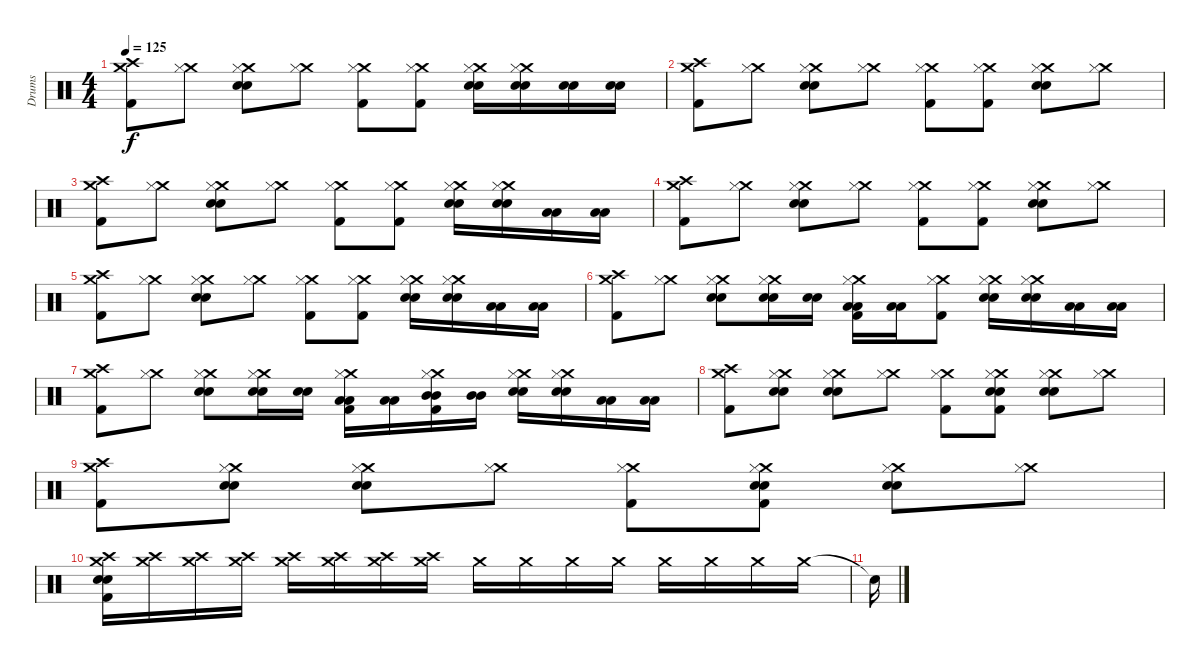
\track ("Drums" "Drums") {instrument percussion}
\staff {score}
\articulation defaults
\ts (4 4)
\tempo 125
\clef neutral
\ks c
("Crash medium (hit)" "Crash high (hit)" "Kick (hit) 2").8{dy f} ("Crash medium (hit)" "Hi-Hat (closed)").8 ("Crash medium (hit)" "Hi-Hat (closed)" "Snare (hit) 2" "Snare (hit) 2").8 ("Crash medium (hit)" "Hi-Hat (closed)").8 ("Crash medium (hit)" "Hi-Hat (closed)" "Kick (hit) 2").8 ("Crash medium (hit)" "Hi-Hat (closed)" "Kick (hit) 2").8 ("Crash medium (hit)" "Hi-Hat (closed)" "Snare (hit) 2" "Snare (hit) 2").16 ("Crash medium (hit)" "Hi-Hat (closed)" "Snare (hit) 2" "Snare (hit) 2").16 ("Snare (hit) 2" "Snare (hit) 2").16 ("Snare (hit) 2" "Snare (hit) 2").16 |
("Crash medium (hit)" "Crash high (hit)" "Kick (hit) 2").8 ("Crash medium (hit)" "Hi-Hat (closed)").8 ("Crash medium (hit)" "Hi-Hat (closed)" "Snare (hit) 2" "Snare (hit) 2").8 ("Crash medium (hit)" "Hi-Hat (closed)").8 ("Crash medium (hit)" "Hi-Hat (closed)" "Kick (hit) 2").8 ("Crash medium (hit)" "Hi-Hat (closed)" "Kick (hit) 2").8 ("Crash medium (hit)" "Hi-Hat (closed)" "Snare (hit) 2" "Snare (hit) 2").8 ("Crash medium (hit)" "Hi-Hat (closed)").8 |
("Crash medium (hit)" "Crash high (hit)" "Kick (hit) 2").8 ("Crash medium (hit)" "Hi-Hat (closed)").8 ("Crash medium (hit)" "Hi-Hat (closed)" "Snare (hit) 2" "Snare (hit) 2").8 ("Crash medium (hit)" "Hi-Hat (closed)").8 ("Crash medium (hit)" "Hi-Hat (closed)" "Kick (hit) 2").8 ("Crash medium (hit)" "Hi-Hat (closed)" "Kick (hit) 2").8 ("Crash medium (hit)" "Hi-Hat (closed)" "Snare (hit) 2" "Snare (hit) 2").16 ("Crash medium (hit)" "Hi-Hat (closed)" "Snare (hit) 2" "Snare (hit) 2").16 ("Low Floor Tom (hit)" "Low Floor Tom (hit)").16 ("Low Floor Tom (hit)" "Low Floor Tom (hit)").16 |
("Crash medium (hit)" "Crash high (hit)" "Kick (hit) 2").8 ("Crash medium (hit)" "Hi-Hat (closed)").8 ("Crash medium (hit)" "Hi-Hat (closed)" "Snare (hit) 2" "Snare (hit) 2").8 ("Crash medium (hit)" "Hi-Hat (closed)").8 ("Crash medium (hit)" "Hi-Hat (closed)" "Kick (hit) 2").8 ("Crash medium (hit)" "Hi-Hat (closed)" "Kick (hit) 2").8 ("Crash medium (hit)" "Hi-Hat (closed)" "Snare (hit) 2" "Snare (hit) 2").8 ("Crash medium (hit)" "Hi-Hat (closed)").8 |
("Crash medium (hit)" "Crash high (hit)" "Kick (hit) 2").8 ("Crash medium (hit)" "Hi-Hat (closed)").8 ("Crash medium (hit)" "Hi-Hat (closed)" "Snare (hit) 2" "Snare (hit) 2").8 ("Crash medium (hit)" "Hi-Hat (closed)").8 ("Crash medium (hit)" "Hi-Hat (closed)" "Kick (hit) 2").8 ("Crash medium (hit)" "Hi-Hat (closed)" "Kick (hit) 2").8 ("Crash medium (hit)" "Hi-Hat (closed)" "Snare (hit) 2" "Snare (hit) 2").16 ("Crash medium (hit)" "Hi-Hat (closed)" "Snare (hit) 2" "Snare (hit) 2").16 ("Low Floor Tom (hit)" "Low Floor Tom (hit)").16 ("Low Floor Tom (hit)" "Low Floor Tom (hit)").16 |
("Crash medium (hit)" "Crash high (hit)" "Kick (hit) 2").8 ("Crash medium (hit)" "Hi-Hat (closed)").8 ("Crash medium (hit)" "Hi-Hat (closed)" "Snare (hit) 2" "Snare (hit) 2").8 ("Crash medium (hit)" "Hi-Hat (closed)" "Snare (hit) 2" "Snare (hit) 2").16 ("Snare (hit) 2" "Snare (hit) 2").16 ("Crash medium (hit)" "Hi-Hat (closed)" "Low Floor Tom (hit)" "Low Floor Tom (hit)" "Kick (hit) 2").16 ("Low Floor Tom (hit)" "Low Floor Tom (hit)").16 ("Crash medium (hit)" "Hi-Hat (closed)" "Kick (hit) 2").8 ("Crash medium (hit)" "Hi-Hat (closed)" "Snare (hit) 2" "Snare (hit) 2").16 ("Crash medium (hit)" "Hi-Hat (closed)" "Snare (hit) 2" "Snare (hit) 2").16 ("Low Floor Tom (hit)" "Low Floor Tom (hit)").16 ("Low Floor Tom (hit)" "Low Floor Tom (hit)").16 |
("Crash medium (hit)" "Crash high (hit)" "Kick (hit) 2").8 ("Crash medium (hit)" "Hi-Hat (closed)").8 ("Crash medium (hit)" "Hi-Hat (closed)" "Snare (hit) 2" "Snare (hit) 2").8 ("Crash medium (hit)" "Hi-Hat (closed)" "Snare (hit) 2" "Snare (hit) 2").16 ("Snare (hit) 2" "Snare (hit) 2").16 ("Crash medium (hit)" "Hi-Hat (closed)" "Low Floor Tom (hit)" "Low Floor Tom (hit)" "Kick (hit) 2").16 ("Low Floor Tom (hit)" "Low Floor Tom (hit)").16 ("Crash medium (hit)" "Hi-Hat (closed)" "Mid Tom (hit)" "Mid Tom (hit)" "Kick (hit) 2").16 ("Mid Tom (hit)" "Mid Tom (hit)").16 ("Crash medium (hit)" "Hi-Hat (closed)" "Snare (hit) 2" "Snare (hit) 2").16 ("Crash medium (hit)" "Hi-Hat (closed)" "Snare (hit) 2" "Snare (hit) 2").16 ("Low Floor Tom (hit)" "Low Floor Tom (hit)").16 ("Low Floor Tom (hit)" "Low Floor Tom (hit)").16 |
("Crash medium (hit)" "Crash high (hit)" "Kick (hit) 2").8 ("Crash medium (hit)" "Hi-Hat (closed)" "Snare (hit) 2" "Snare (hit) 2").8 ("Crash medium (hit)" "Hi-Hat (closed)" "Snare (hit) 2" "Snare (hit) 2").8 ("Crash medium (hit)" "Hi-Hat (closed)").8 ("Crash medium (hit)" "Hi-Hat (closed)" "Kick (hit) 2").8 ("Crash medium (hit)" "Hi-Hat (closed)" "Snare (hit) 2" "Snare (hit) 2" "Kick (hit) 2").8 ("Crash medium (hit)" "Hi-Hat (closed)" "Snare (hit) 2" "Snare (hit) 2").8 ("Crash medium (hit)" "Hi-Hat (closed)").8 |
("Crash medium (hit)" "Crash high (hit)" "Kick (hit) 2").8 ("Crash medium (hit)" "Hi-Hat (closed)" "Snare (hit) 2" "Snare (hit) 2").8 ("Crash medium (hit)" "Hi-Hat (closed)" "Snare (hit) 2" "Snare (hit) 2").8 ("Crash medium (hit)" "Hi-Hat (closed)").8 ("Crash medium (hit)" "Hi-Hat (closed)" "Kick (hit) 2").8 ("Crash medium (hit)" "Hi-Hat (closed)" "Snare (hit) 2" "Snare (hit) 2" "Kick (hit) 2").8 ("Crash medium (hit)" "Hi-Hat (closed)" "Snare (hit) 2" "Snare (hit) 2").8 ("Crash medium (hit)" "Hi-Hat (closed)").8 |
("Crash medium (hit)" "Crash high (hit)" "Snare (hit) 2" "Snare (hit) 2" "Kick (hit) 2").16 ("Crash medium (hit)" "Crash high (hit)").16 ("Crash medium (hit)" "Crash high (hit)").16 ("Crash medium (hit)" "Crash high (hit)").16 ("Crash medium (hit)" "Crash high (hit)").16{volume 12} ("Crash medium (hit)" "Crash high (hit)").16 ("Crash medium (hit)" "Crash high (hit)").16 ("Crash medium (hit)" "Crash high (hit)").16 "Crash medium (hit)".16{volume 11} "Crash medium (hit)".16 "Crash medium (hit)".16 "Crash medium (hit)".16 "Crash medium (hit)".16{volume 10} "Crash medium (hit)".16{volume 9} "Crash medium (hit)".16{volume 8} "Crash medium (hit)".16{volume 7} |
"Snare (hit)"{t}.16
